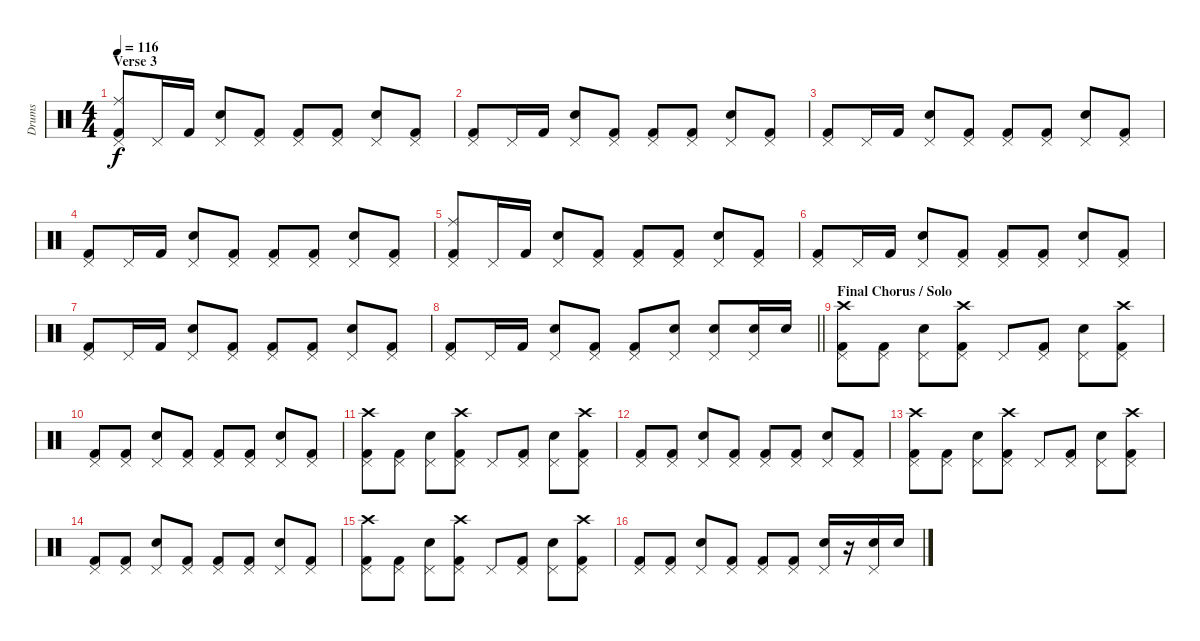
\track ("Drums" "Drums") {instrument percussion}
\staff {score}
\articulation defaults
\ts (4 4)
\section ("" "Verse 3")
\tempo 116
\clef neutral
\ks c
("Pedal Hi-Hat (hit)" "Ride (middle)" "Kick (hit) 2").8{dy f} "Pedal Hi-Hat (hit)".16 "Kick (hit) 2".16 ("Pedal Hi-Hat (hit)" "Electric Snare (hit)").8 ("Pedal Hi-Hat (hit)" "Kick (hit) 2").8 ("Pedal Hi-Hat (hit)" "Kick (hit) 2").8 ("Pedal Hi-Hat (hit)" "Kick (hit) 2").8 ("Pedal Hi-Hat (hit)" "Electric Snare (hit)").8 ("Pedal Hi-Hat (hit)" "Kick (hit) 2").8 |
("Pedal Hi-Hat (hit)" "Kick (hit) 2").8 "Pedal Hi-Hat (hit)".16 "Kick (hit) 2".16 ("Pedal Hi-Hat (hit)" "Electric Snare (hit)").8 ("Pedal Hi-Hat (hit)" "Kick (hit) 2").8 ("Pedal Hi-Hat (hit)" "Kick (hit) 2").8 ("Pedal Hi-Hat (hit)" "Kick (hit) 2").8 ("Pedal Hi-Hat (hit)" "Electric Snare (hit)").8 ("Pedal Hi-Hat (hit)" "Kick (hit) 2").8 |
("Pedal Hi-Hat (hit)" "Kick (hit) 2").8 "Pedal Hi-Hat (hit)".16 "Kick (hit) 2".16 ("Pedal Hi-Hat (hit)" "Electric Snare (hit)").8 ("Pedal Hi-Hat (hit)" "Kick (hit) 2").8 ("Pedal Hi-Hat (hit)" "Kick (hit) 2").8 ("Pedal Hi-Hat (hit)" "Kick (hit) 2").8 ("Pedal Hi-Hat (hit)" "Electric Snare (hit)").8 ("Pedal Hi-Hat (hit)" "Kick (hit) 2").8 |
("Pedal Hi-Hat (hit)" "Kick (hit) 2").8 "Pedal Hi-Hat (hit)".16 "Kick (hit) 2".16 ("Pedal Hi-Hat (hit)" "Electric Snare (hit)").8 ("Pedal Hi-Hat (hit)" "Kick (hit) 2").8 ("Pedal Hi-Hat (hit)" "Kick (hit) 2").8 ("Pedal Hi-Hat (hit)" "Kick (hit) 2").8 ("Pedal Hi-Hat (hit)" "Electric Snare (hit)").8 ("Pedal Hi-Hat (hit)" "Kick (hit) 2").8 |
("Pedal Hi-Hat (hit)" "Ride (middle)" "Kick (hit) 2").8 "Pedal Hi-Hat (hit)".16 "Kick (hit) 2".16 ("Pedal Hi-Hat (hit)" "Electric Snare (hit)").8 ("Pedal Hi-Hat (hit)" "Kick (hit) 2").8 ("Pedal Hi-Hat (hit)" "Kick (hit) 2").8 ("Pedal Hi-Hat (hit)" "Kick (hit) 2").8 ("Pedal Hi-Hat (hit)" "Electric Snare (hit)").8 ("Pedal Hi-Hat (hit)" "Kick (hit) 2").8 |
("Pedal Hi-Hat (hit)" "Kick (hit) 2").8 "Pedal Hi-Hat (hit)".16 "Kick (hit) 2".16 ("Pedal Hi-Hat (hit)" "Electric Snare (hit)").8 ("Pedal Hi-Hat (hit)" "Kick (hit) 2").8 ("Pedal Hi-Hat (hit)" "Kick (hit) 2").8 ("Pedal Hi-Hat (hit)" "Kick (hit) 2").8 ("Pedal Hi-Hat (hit)" "Electric Snare (hit)").8 ("Pedal Hi-Hat (hit)" "Kick (hit) 2").8 |
("Pedal Hi-Hat (hit)" "Kick (hit) 2").8 "Pedal Hi-Hat (hit)".16 "Kick (hit) 2".16 ("Pedal Hi-Hat (hit)" "Electric Snare (hit)").8 ("Pedal Hi-Hat (hit)" "Kick (hit) 2").8 ("Pedal Hi-Hat (hit)" "Kick (hit) 2").8 ("Pedal Hi-Hat (hit)" "Kick (hit) 2").8 ("Pedal Hi-Hat (hit)" "Electric Snare (hit)").8 ("Pedal Hi-Hat (hit)" "Kick (hit) 2").8 |
\barLineRight lightlight
("Pedal Hi-Hat (hit)" "Kick (hit) 2").8 "Pedal Hi-Hat (hit)".16 "Kick (hit) 2".16 ("Pedal Hi-Hat (hit)" "Electric Snare (hit)").8 ("Pedal Hi-Hat (hit)" "Kick (hit) 2").8 ("Pedal Hi-Hat (hit)" "Kick (hit) 2").8 ("Pedal Hi-Hat (hit)" "Electric Snare (hit)").8 ("Pedal Hi-Hat (hit)" "Electric Snare (hit)").8 ("Pedal Hi-Hat (hit)" "Electric Snare (hit)").16 "Electric Snare (hit)".16 |
\section ("" "Final Chorus / Solo")
("Pedal Hi-Hat (hit)" "Crash high (hit)" "Kick (hit) 2").8 ("Pedal Hi-Hat (hit)" "Kick (hit) 2").8 ("Pedal Hi-Hat (hit)" "Electric Snare (hit)").8 ("Pedal Hi-Hat (hit)" "Crash high (hit)" "Kick (hit) 2").8 "Pedal Hi-Hat (hit)".8 ("Pedal Hi-Hat (hit)" "Kick (hit) 2").8 ("Pedal Hi-Hat (hit)" "Electric Snare (hit)").8 ("Pedal Hi-Hat (hit)" "Crash high (hit)" "Kick (hit) 2").8 |
("Pedal Hi-Hat (hit)" "Kick (hit) 2").8 ("Pedal Hi-Hat (hit)" "Kick (hit) 2").8 ("Pedal Hi-Hat (hit)" "Electric Snare (hit)").8 ("Pedal Hi-Hat (hit)" "Kick (hit) 2").8 ("Pedal Hi-Hat (hit)" "Kick (hit) 2").8 ("Pedal Hi-Hat (hit)" "Kick (hit) 2").8 ("Pedal Hi-Hat (hit)" "Electric Snare (hit)").8 ("Pedal Hi-Hat (hit)" "Kick (hit) 2").8 |
("Pedal Hi-Hat (hit)" "Crash high (hit)" "Kick (hit) 2").8 ("Pedal Hi-Hat (hit)" "Kick (hit) 2").8 ("Pedal Hi-Hat (hit)" "Electric Snare (hit)").8 ("Pedal Hi-Hat (hit)" "Crash high (hit)" "Kick (hit) 2").8 "Pedal Hi-Hat (hit)".8 ("Pedal Hi-Hat (hit)" "Kick (hit) 2").8 ("Pedal Hi-Hat (hit)" "Electric Snare (hit)").8 ("Pedal Hi-Hat (hit)" "Crash high (hit)" "Kick (hit) 2").8 |
("Pedal Hi-Hat (hit)" "Kick (hit) 2").8 ("Pedal Hi-Hat (hit)" "Kick (hit) 2").8 ("Pedal Hi-Hat (hit)" "Electric Snare (hit)").8 ("Pedal Hi-Hat (hit)" "Kick (hit) 2").8 ("Pedal Hi-Hat (hit)" "Kick (hit) 2").8 ("Pedal Hi-Hat (hit)" "Kick (hit) 2").8 ("Pedal Hi-Hat (hit)" "Electric Snare (hit)").8 ("Pedal Hi-Hat (hit)" "Kick (hit) 2").8 |
("Pedal Hi-Hat (hit)" "Crash high (hit)" "Kick (hit) 2").8 ("Pedal Hi-Hat (hit)" "Kick (hit) 2").8 ("Pedal Hi-Hat (hit)" "Electric Snare (hit)").8 ("Pedal Hi-Hat (hit)" "Crash high (hit)" "Kick (hit) 2").8 "Pedal Hi-Hat (hit)".8 ("Pedal Hi-Hat (hit)" "Kick (hit) 2").8 ("Pedal Hi-Hat (hit)" "Electric Snare (hit)").8 ("Pedal Hi-Hat (hit)" "Crash high (hit)" "Kick (hit) 2").8 |
("Pedal Hi-Hat (hit)" "Kick (hit) 2").8 ("Pedal Hi-Hat (hit)" "Kick (hit) 2").8 ("Pedal Hi-Hat (hit)" "Electric Snare (hit)").8 ("Pedal Hi-Hat (hit)" "Kick (hit) 2").8 ("Pedal Hi-Hat (hit)" "Kick (hit) 2").8 ("Pedal Hi-Hat (hit)" "Kick (hit) 2").8 ("Pedal Hi-Hat (hit)" "Electric Snare (hit)").8 ("Pedal Hi-Hat (hit)" "Kick (hit) 2").8 |
("Pedal Hi-Hat (hit)" "Crash high (hit)" "Kick (hit) 2").8 ("Pedal Hi-Hat (hit)" "Kick (hit) 2").8 ("Pedal Hi-Hat (hit)" "Electric Snare (hit)").8 ("Pedal Hi-Hat (hit)" "Crash high (hit)" "Kick (hit) 2").8 "Pedal Hi-Hat (hit)".8 ("Pedal Hi-Hat (hit)" "Kick (hit) 2").8 ("Pedal Hi-Hat (hit)" "Electric Snare (hit)").8 ("Pedal Hi-Hat (hit)" "Crash high (hit)" "Kick (hit) 2").8 |
("Pedal Hi-Hat (hit)" "Kick (hit) 2").8 ("Pedal Hi-Hat (hit)" "Kick (hit) 2").8 ("Pedal Hi-Hat (hit)" "Electric Snare (hit)").8 ("Pedal Hi-Hat (hit)" "Kick (hit) 2").8 ("Pedal Hi-Hat (hit)" "Kick (hit) 2").8 ("Pedal Hi-Hat (hit)" "Kick (hit) 2").8 ("Pedal Hi-Hat (hit)" "Electric Snare (hit)").16 r.16 ("Pedal Hi-Hat (hit)" "Electric Snare (hit)").16 "Electric Snare (hit)".16
